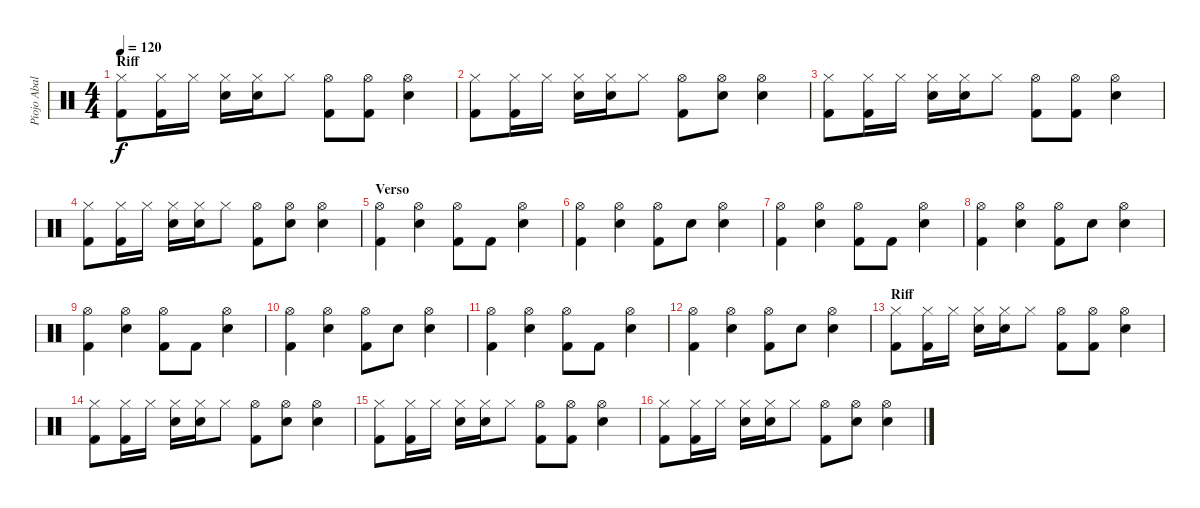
\track ("Piojo Abalos" "Piojo Abal") {instrument percussion}
\staff {score}
\articulation defaults
\ts (4 4)
\section ("" "Riff")
\tempo 120
\clef neutral
\ks c
("Hi-Hat (closed)" "Kick (hit) 2").8{dy f} ("Hi-Hat (closed)" "Kick (hit) 2").16 "Hi-Hat (closed)".16 ("Hi-Hat (closed)" "Electric Snare (hit)").16 ("Hi-Hat (closed)" "Electric Snare (hit)").16 "Hi-Hat (closed)".8 ("Hi-Hat (open)" "Kick (hit) 2").8 ("Hi-Hat (open)" "Kick (hit) 2").8 ("Hi-Hat (open)" "Electric Snare (hit)").4 |
("Hi-Hat (closed)" "Kick (hit) 2").8 ("Hi-Hat (closed)" "Kick (hit) 2").16 "Hi-Hat (closed)".16 ("Hi-Hat (closed)" "Electric Snare (hit)").16 ("Hi-Hat (closed)" "Electric Snare (hit)").16 "Hi-Hat (closed)".8 ("Hi-Hat (open)" "Kick (hit) 2").8 ("Hi-Hat (open)" "Electric Snare (hit)").8 ("Hi-Hat (open)" "Electric Snare (hit)").4 |
("Hi-Hat (closed)" "Kick (hit) 2").8 ("Hi-Hat (closed)" "Kick (hit) 2").16 "Hi-Hat (closed)".16 ("Hi-Hat (closed)" "Electric Snare (hit)").16 ("Hi-Hat (closed)" "Electric Snare (hit)").16 "Hi-Hat (closed)".8 ("Hi-Hat (open)" "Kick (hit) 2").8 ("Hi-Hat (open)" "Kick (hit) 2").8 ("Hi-Hat (open)" "Electric Snare (hit)").4 |
("Hi-Hat (closed)" "Kick (hit) 2").8 ("Hi-Hat (closed)" "Kick (hit) 2").16 "Hi-Hat (closed)".16 ("Hi-Hat (closed)" "Electric Snare (hit)").16 ("Hi-Hat (closed)" "Electric Snare (hit)").16 "Hi-Hat (closed)".8 ("Hi-Hat (open)" "Kick (hit) 2").8 ("Hi-Hat (open)" "Electric Snare (hit)").8 ("Hi-Hat (open)" "Electric Snare (hit)").4 |
\section ("" "Verso")
("Hi-Hat (open)" "Kick (hit) 2").4 ("Hi-Hat (open)" "Electric Snare (hit)").4 ("Hi-Hat (open)" "Kick (hit) 2").8 "Kick (hit) 2".8 ("Hi-Hat (open)" "Electric Snare (hit)").4 |
("Hi-Hat (open)" "Kick (hit) 2").4 ("Hi-Hat (open)" "Electric Snare (hit)").4 ("Hi-Hat (open)" "Kick (hit) 2").8 "Electric Snare (hit)".8 ("Hi-Hat (open)" "Electric Snare (hit)").4 |
("Hi-Hat (open)" "Kick (hit) 2").4 ("Hi-Hat (open)" "Electric Snare (hit)").4 ("Hi-Hat (open)" "Kick (hit) 2").8 "Kick (hit) 2".8 ("Hi-Hat (open)" "Electric Snare (hit)").4 |
("Hi-Hat (open)" "Kick (hit) 2").4 ("Hi-Hat (open)" "Electric Snare (hit)").4 ("Hi-Hat (open)" "Kick (hit) 2").8 "Electric Snare (hit)".8 ("Hi-Hat (open)" "Electric Snare (hit)").4 |
("Hi-Hat (open)" "Kick (hit) 2").4 ("Hi-Hat (open)" "Electric Snare (hit)").4 ("Hi-Hat (open)" "Kick (hit) 2").8 "Kick (hit) 2".8 ("Hi-Hat (open)" "Electric Snare (hit)").4 |
("Hi-Hat (open)" "Kick (hit) 2").4 ("Hi-Hat (open)" "Electric Snare (hit)").4 ("Hi-Hat (open)" "Kick (hit) 2").8 "Electric Snare (hit)".8 ("Hi-Hat (open)" "Electric Snare (hit)").4 |
("Hi-Hat (open)" "Kick (hit) 2").4 ("Hi-Hat (open)" "Electric Snare (hit)").4 ("Hi-Hat (open)" "Kick (hit) 2").8 "Kick (hit) 2".8 ("Hi-Hat (open)" "Electric Snare (hit)").4 |
("Hi-Hat (open)" "Kick (hit) 2").4 ("Hi-Hat (open)" "Electric Snare (hit)").4 ("Hi-Hat (open)" "Kick (hit) 2").8 "Electric Snare (hit)".8 ("Hi-Hat (open)" "Electric Snare (hit)").4 |
\section ("" "Riff")
("Hi-Hat (closed)" "Kick (hit) 2").8 ("Hi-Hat (closed)" "Kick (hit) 2").16 "Hi-Hat (closed)".16 ("Hi-Hat (closed)" "Electric Snare (hit)").16 ("Hi-Hat (closed)" "Electric Snare (hit)").16 "Hi-Hat (closed)".8 ("Hi-Hat (open)" "Kick (hit) 2").8 ("Hi-Hat (open)" "Kick (hit) 2").8 ("Hi-Hat (open)" "Electric Snare (hit)").4 |
("Hi-Hat (closed)" "Kick (hit) 2").8 ("Hi-Hat (closed)" "Kick (hit) 2").16 "Hi-Hat (closed)".16 ("Hi-Hat (closed)" "Electric Snare (hit)").16 ("Hi-Hat (closed)" "Electric Snare (hit)").16 "Hi-Hat (closed)".8 ("Hi-Hat (open)" "Kick (hit) 2").8 ("Hi-Hat (open)" "Electric Snare (hit)").8 ("Hi-Hat (open)" "Electric Snare (hit)").4 |
("Hi-Hat (closed)" "Kick (hit) 2").8 ("Hi-Hat (closed)" "Kick (hit) 2").16 "Hi-Hat (closed)".16 ("Hi-Hat (closed)" "Electric Snare (hit)").16 ("Hi-Hat (closed)" "Electric Snare (hit)").16 "Hi-Hat (closed)".8 ("Hi-Hat (open)" "Kick (hit) 2").8 ("Hi-Hat (open)" "Kick (hit) 2").8 ("Hi-Hat (open)" "Electric Snare (hit)").4 |
("Hi-Hat (closed)" "Kick (hit) 2").8 ("Hi-Hat (closed)" "Kick (hit) 2").16 "Hi-Hat (closed)".16 ("Hi-Hat (closed)" "Electric Snare (hit)").16 ("Hi-Hat (closed)" "Electric Snare (hit)").16 "Hi-Hat (closed)".8 ("Hi-Hat (open)" "Kick (hit) 2").8 ("Hi-Hat (open)" "Electric Snare (hit)").8 ("Hi-Hat (open)" "Electric Snare (hit)").4
